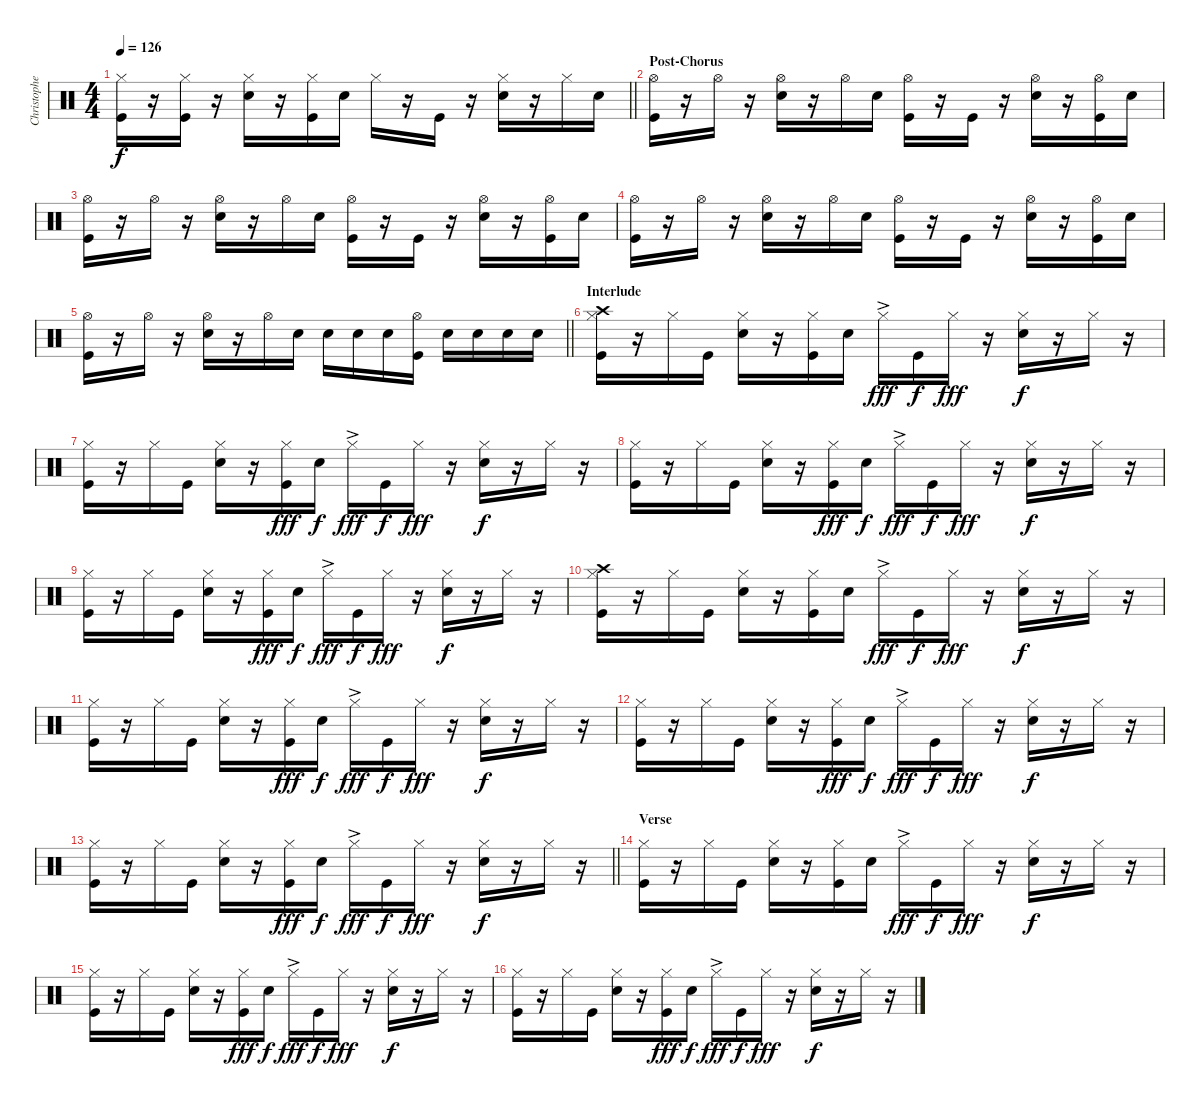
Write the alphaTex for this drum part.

\track ("Christopher - Drums" "Christophe") {instrument percussion}
\staff {score}
\articulation defaults
\ts (4 4)
\tempo 126
\clef neutral
\barLineRight lightlight
\ks c
("Hi-Hat (closed)" "Kick (hit)").16{dy f} r.16 ("Hi-Hat (closed)" "Kick (hit)").16 r.16 ("Hi-Hat (closed)" "Snare (hit) 2").16 r.16 ("Hi-Hat (closed)" "Kick (hit)").16 "Snare (hit) 2".16 "Hi-Hat (closed)".16 r.16 "Kick (hit)".16 r.16 ("Hi-Hat (closed)" "Snare (hit) 2").16 r.16 "Hi-Hat (closed)".16 "Snare (hit) 2".16 |
\section ("" "Post-Chorus")
("Hi-Hat (open)" "Kick (hit)").16 r.16 "Hi-Hat (open)".16 r.16 ("Hi-Hat (open)" "Snare (hit) 2").16 r.16 "Hi-Hat (open)".16 "Snare (hit) 2".16 ("Hi-Hat (open)" "Kick (hit)").16 r.16 "Kick (hit)".16 r.16 ("Hi-Hat (open)" "Snare (hit) 2").16 r.16 ("Hi-Hat (open)" "Kick (hit)").16 "Snare (hit) 2".16 |
("Hi-Hat (open)" "Kick (hit)").16 r.16 "Hi-Hat (open)".16 r.16 ("Hi-Hat (open)" "Snare (hit) 2").16 r.16 "Hi-Hat (open)".16 "Snare (hit) 2".16 ("Hi-Hat (open)" "Kick (hit)").16 r.16 "Kick (hit)".16 r.16 ("Hi-Hat (open)" "Snare (hit) 2").16 r.16 ("Hi-Hat (open)" "Kick (hit)").16 "Snare (hit) 2".16 |
("Hi-Hat (open)" "Kick (hit)").16 r.16 "Hi-Hat (open)".16 r.16 ("Hi-Hat (open)" "Snare (hit) 2").16 r.16 "Hi-Hat (open)".16 "Snare (hit) 2".16 ("Hi-Hat (open)" "Kick (hit)").16 r.16 "Kick (hit)".16 r.16 ("Hi-Hat (open)" "Snare (hit) 2").16 r.16 ("Hi-Hat (open)" "Kick (hit)").16 "Snare (hit) 2".16 |
\barLineRight lightlight
("Hi-Hat (open)" "Kick (hit)").16 r.16 "Hi-Hat (open)".16 r.16 ("Hi-Hat (open)" "Snare (hit) 2").16 r.16 "Hi-Hat (open)".16 "Snare (hit) 2".16 "Snare (hit) 2".16 "Snare (hit) 2".16 "Snare (hit) 2".16 ("Hi-Hat (open)" "Kick (hit)").16 "Snare (hit) 2".16 "Snare (hit) 2".16 "Snare (hit) 2".16 "Snare (hit) 2".16 |
\section ("" "Interlude")
("Crash high (hit)" "Hi-Hat (closed)" "Kick (hit)").16 r.16 "Hi-Hat (closed)".16 "Kick (hit)".16 ("Hi-Hat (closed)" "Snare (hit) 2").16 r.16 ("Hi-Hat (closed)" "Kick (hit)").16 "Snare (hit) 2".16 "Hi-Hat (closed)"{ac}.16{dy fff} "Kick (hit)".16{dy f} "Hi-Hat (closed)".16{dy fff} r.16 ("Hi-Hat (closed)" "Snare (hit) 2").16{dy f} r.16 "Hi-Hat (closed)".16 r.16 |
("Hi-Hat (closed)" "Kick (hit)").16 r.16 "Hi-Hat (closed)".16 "Kick (hit)".16 ("Hi-Hat (closed)" "Snare (hit) 2").16 r.16 ("Hi-Hat (closed)" "Kick (hit)").16{dy fff} "Snare (hit) 2".16{dy f} "Hi-Hat (closed)"{ac}.16{dy fff} "Kick (hit)".16{dy f} "Hi-Hat (closed)".16{dy fff} r.16 ("Hi-Hat (closed)" "Snare (hit) 2").16{dy f} r.16 "Hi-Hat (closed)".16 r.16 |
("Hi-Hat (closed)" "Kick (hit)").16 r.16 "Hi-Hat (closed)".16 "Kick (hit)".16 ("Hi-Hat (closed)" "Snare (hit) 2").16 r.16 ("Hi-Hat (closed)" "Kick (hit)").16{dy fff} "Snare (hit) 2".16{dy f} "Hi-Hat (closed)"{ac}.16{dy fff} "Kick (hit)".16{dy f} "Hi-Hat (closed)".16{dy fff} r.16 ("Hi-Hat (closed)" "Snare (hit) 2").16{dy f} r.16 "Hi-Hat (closed)".16 r.16 |
("Hi-Hat (closed)" "Kick (hit)").16 r.16 "Hi-Hat (closed)".16 "Kick (hit)".16 ("Hi-Hat (closed)" "Snare (hit) 2").16 r.16 ("Hi-Hat (closed)" "Kick (hit)").16{dy fff} "Snare (hit) 2".16{dy f} "Hi-Hat (closed)"{ac}.16{dy fff} "Kick (hit)".16{dy f} "Hi-Hat (closed)".16{dy fff} r.16 ("Hi-Hat (closed)" "Snare (hit) 2").16{dy f} r.16 "Hi-Hat (closed)".16 r.16 |
("Crash high (hit)" "Hi-Hat (closed)" "Kick (hit)").16 r.16 "Hi-Hat (closed)".16 "Kick (hit)".16 ("Hi-Hat (closed)" "Snare (hit) 2").16 r.16 ("Hi-Hat (closed)" "Kick (hit)").16 "Snare (hit) 2".16 "Hi-Hat (closed)"{ac}.16{dy fff} "Kick (hit)".16{dy f} "Hi-Hat (closed)".16{dy fff} r.16 ("Hi-Hat (closed)" "Snare (hit) 2").16{dy f} r.16 "Hi-Hat (closed)".16 r.16 |
("Hi-Hat (closed)" "Kick (hit)").16 r.16 "Hi-Hat (closed)".16 "Kick (hit)".16 ("Hi-Hat (closed)" "Snare (hit) 2").16 r.16 ("Hi-Hat (closed)" "Kick (hit)").16{dy fff} "Snare (hit) 2".16{dy f} "Hi-Hat (closed)"{ac}.16{dy fff} "Kick (hit)".16{dy f} "Hi-Hat (closed)".16{dy fff} r.16 ("Hi-Hat (closed)" "Snare (hit) 2").16{dy f} r.16 "Hi-Hat (closed)".16 r.16 |
("Hi-Hat (closed)" "Kick (hit)").16 r.16 "Hi-Hat (closed)".16 "Kick (hit)".16 ("Hi-Hat (closed)" "Snare (hit) 2").16 r.16 ("Hi-Hat (closed)" "Kick (hit)").16{dy fff} "Snare (hit) 2".16{dy f} "Hi-Hat (closed)"{ac}.16{dy fff} "Kick (hit)".16{dy f} "Hi-Hat (closed)".16{dy fff} r.16 ("Hi-Hat (closed)" "Snare (hit) 2").16{dy f} r.16 "Hi-Hat (closed)".16 r.16 |
\barLineRight lightlight
("Hi-Hat (closed)" "Kick (hit)").16 r.16 "Hi-Hat (closed)".16 "Kick (hit)".16 ("Hi-Hat (closed)" "Snare (hit) 2").16 r.16 ("Hi-Hat (closed)" "Kick (hit)").16{dy fff} "Snare (hit) 2".16{dy f} "Hi-Hat (closed)"{ac}.16{dy fff} "Kick (hit)".16{dy f} "Hi-Hat (closed)".16{dy fff} r.16 ("Hi-Hat (closed)" "Snare (hit) 2").16{dy f} r.16 "Hi-Hat (closed)".16 r.16 |
\section ("" "Verse")
("Hi-Hat (closed)" "Kick (hit)").16 r.16 "Hi-Hat (closed)".16 "Kick (hit)".16 ("Hi-Hat (closed)" "Snare (hit) 2").16 r.16 ("Hi-Hat (closed)" "Kick (hit)").16 "Snare (hit) 2".16 "Hi-Hat (closed)"{ac}.16{dy fff} "Kick (hit)".16{dy f} "Hi-Hat (closed)".16{dy fff} r.16 ("Hi-Hat (closed)" "Snare (hit) 2").16{dy f} r.16 "Hi-Hat (closed)".16 r.16 |
("Hi-Hat (closed)" "Kick (hit)").16 r.16 "Hi-Hat (closed)".16 "Kick (hit)".16 ("Hi-Hat (closed)" "Snare (hit) 2").16 r.16 ("Hi-Hat (closed)" "Kick (hit)").16{dy fff} "Snare (hit) 2".16{dy f} "Hi-Hat (closed)"{ac}.16{dy fff} "Kick (hit)".16{dy f} "Hi-Hat (closed)".16{dy fff} r.16 ("Hi-Hat (closed)" "Snare (hit) 2").16{dy f} r.16 "Hi-Hat (closed)".16 r.16 |
("Hi-Hat (closed)" "Kick (hit)").16 r.16 "Hi-Hat (closed)".16 "Kick (hit)".16 ("Hi-Hat (closed)" "Snare (hit) 2").16 r.16 ("Hi-Hat (closed)" "Kick (hit)").16{dy fff} "Snare (hit) 2".16{dy f} "Hi-Hat (closed)"{ac}.16{dy fff} "Kick (hit)".16{dy f} "Hi-Hat (closed)".16{dy fff} r.16 ("Hi-Hat (closed)" "Snare (hit) 2").16{dy f} r.16 "Hi-Hat (closed)".16 r.16
